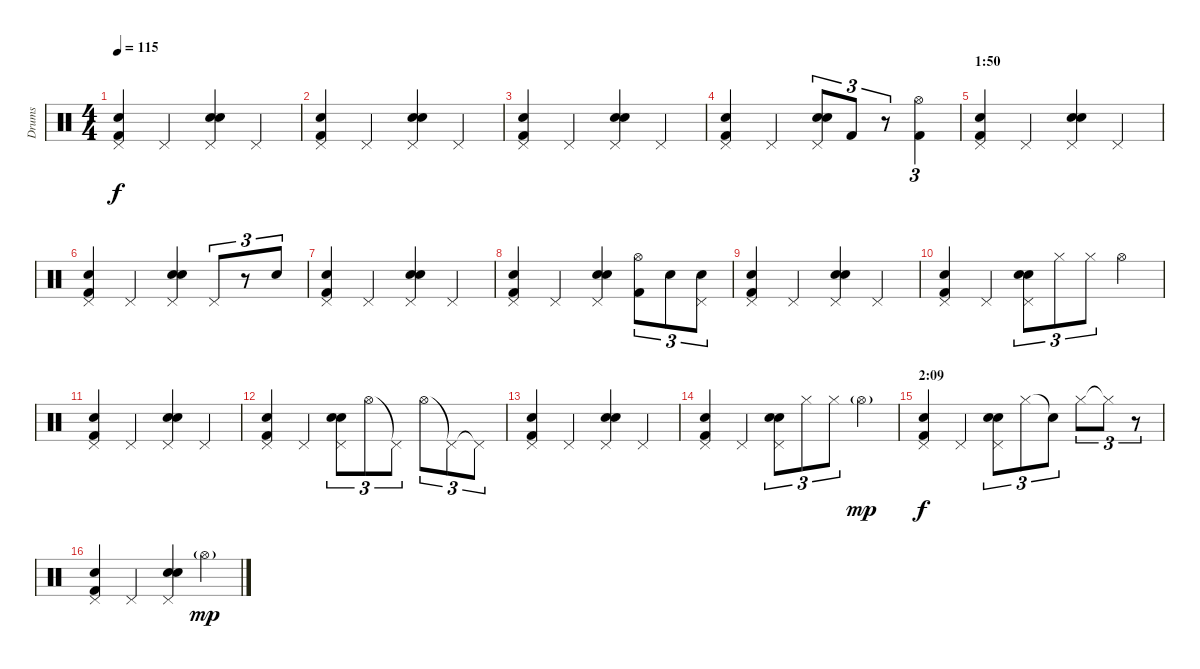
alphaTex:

\track ("Drums" "Drums") {instrument percussion}
\staff {score}
\articulation defaults
\ts (4 4)
\tempo 115
\clef neutral
\ks c
("Pedal Hi-Hat (hit)" "Hand Clap (hit)" "Kick (hit) 2").4{dy f} "Pedal Hi-Hat (hit)".4 ("Pedal Hi-Hat (hit)" "Hand Clap (hit)" "Electric Snare (hit)").4 "Pedal Hi-Hat (hit)".4 |
("Pedal Hi-Hat (hit)" "Hand Clap (hit)" "Kick (hit) 2").4 "Pedal Hi-Hat (hit)".4 ("Pedal Hi-Hat (hit)" "Hand Clap (hit)" "Electric Snare (hit)").4 "Pedal Hi-Hat (hit)".4 |
("Pedal Hi-Hat (hit)" "Hand Clap (hit)" "Kick (hit) 2").4 "Pedal Hi-Hat (hit)".4 ("Pedal Hi-Hat (hit)" "Hand Clap (hit)" "Electric Snare (hit)").4 "Pedal Hi-Hat (hit)".4 |
("Pedal Hi-Hat (hit)" "Hand Clap (hit)" "Kick (hit) 2").4 "Pedal Hi-Hat (hit)".4 ("Pedal Hi-Hat (hit)" "Hand Clap (hit)" "Electric Snare (hit)").8{tu (3 2)} "Kick (hit) 2".8{tu (3 2)} r.8{tu (3 2)} ("Hi-Hat (open)" "Kick (hit) 2").4{tu (3 2)} |
\section ("" "1:50")
("Pedal Hi-Hat (hit)" "Hand Clap (hit)" "Kick (hit) 2").4 "Pedal Hi-Hat (hit)".4 ("Pedal Hi-Hat (hit)" "Hand Clap (hit)" "Electric Snare (hit)").4 "Pedal Hi-Hat (hit)".4 |
("Pedal Hi-Hat (hit)" "Hand Clap (hit)" "Kick (hit) 2").4 "Pedal Hi-Hat (hit)".4 ("Pedal Hi-Hat (hit)" "Hand Clap (hit)" "Electric Snare (hit)").4 "Pedal Hi-Hat (hit)".8{tu (3 2)} r.8{tu (3 2)} "Electric Snare (hit)".8{tu (3 2)} |
("Pedal Hi-Hat (hit)" "Hand Clap (hit)" "Kick (hit) 2").4 "Pedal Hi-Hat (hit)".4 ("Pedal Hi-Hat (hit)" "Hand Clap (hit)" "Electric Snare (hit)").4 "Pedal Hi-Hat (hit)".4 |
("Pedal Hi-Hat (hit)" "Hand Clap (hit)" "Kick (hit) 2").4 "Pedal Hi-Hat (hit)".4 ("Pedal Hi-Hat (hit)" "Hand Clap (hit)" "Electric Snare (hit)").4 ("Hi-Hat (open)" "Kick (hit) 2").8{tu (3 2)} "Electric Snare (hit)".8{tu (3 2)} ("Pedal Hi-Hat (hit)" "Electric Snare (hit)").8{tu (3 2)} |
("Pedal Hi-Hat (hit)" "Hand Clap (hit)" "Kick (hit) 2").4 "Pedal Hi-Hat (hit)".4 ("Pedal Hi-Hat (hit)" "Hand Clap (hit)" "Electric Snare (hit)").4 "Pedal Hi-Hat (hit)".4 |
("Pedal Hi-Hat (hit)" "Hand Clap (hit)" "Kick (hit) 2").4 "Pedal Hi-Hat (hit)".4 ("Pedal Hi-Hat (hit)" "Hand Clap (hit)" "Electric Snare (hit)").8{tu (3 2)} "Hi-Hat (closed)".8{tu (3 2)} "Hi-Hat (closed)".8{tu (3 2)} "Hi-Hat (open)".4 |
("Pedal Hi-Hat (hit)" "Hand Clap (hit)" "Kick (hit) 2").4 "Pedal Hi-Hat (hit)".4 ("Pedal Hi-Hat (hit)" "Hand Clap (hit)" "Electric Snare (hit)").4 "Pedal Hi-Hat (hit)".4 |
("Pedal Hi-Hat (hit)" "Hand Clap (hit)" "Kick (hit) 2").4 "Pedal Hi-Hat (hit)".4 ("Pedal Hi-Hat (hit)" "Hand Clap (hit)" "Electric Snare (hit)").8{tu (3 2)} "Hi-Hat (open)".8{tu (3 2)} "Pedal Hi-Hat (hit)"{t}.8{tu (3 2)} "Hi-Hat (open)".8{tu (3 2)} "Pedal Hi-Hat (hit)"{t}.8{tu (3 2)} "Pedal Hi-Hat (hit)"{t}.8{tu (3 2)} |
("Pedal Hi-Hat (hit)" "Hand Clap (hit)" "Kick (hit) 2").4 "Pedal Hi-Hat (hit)".4 ("Pedal Hi-Hat (hit)" "Hand Clap (hit)" "Electric Snare (hit)").4 "Pedal Hi-Hat (hit)".4 |
("Pedal Hi-Hat (hit)" "Hand Clap (hit)" "Kick (hit) 2").4 "Pedal Hi-Hat (hit)".4 ("Pedal Hi-Hat (hit)" "Hand Clap (hit)" "Electric Snare (hit)").8{tu (3 2)} "Hi-Hat (closed)".8{tu (3 2)} "Hi-Hat (closed)".8{tu (3 2)} "Hi-Hat (open)"{g}.4{dy mp} |
\section ("" "2:09")
("Pedal Hi-Hat (hit)" "Hand Clap (hit)" "Kick (hit) 2").4{dy f} "Pedal Hi-Hat (hit)".4 ("Pedal Hi-Hat (hit)" "Hand Clap (hit)" "Electric Snare (hit)").8{tu (3 2)} "Hi-Hat (closed)".8{tu (3 2)} "Snare (hit)"{t}.8{tu (3 2)} "Hi-Hat (closed)".8{tu (3 2)} "Hi-Hat (closed)"{t}.8{tu (3 2)} r.8{tu (3 2)} |
("Pedal Hi-Hat (hit)" "Hand Clap (hit)" "Kick (hit) 2").4 "Pedal Hi-Hat (hit)".4 ("Pedal Hi-Hat (hit)" "Hand Clap (hit)" "Electric Snare (hit)").4 "Hi-Hat (open)"{g}.4{dy mp}
